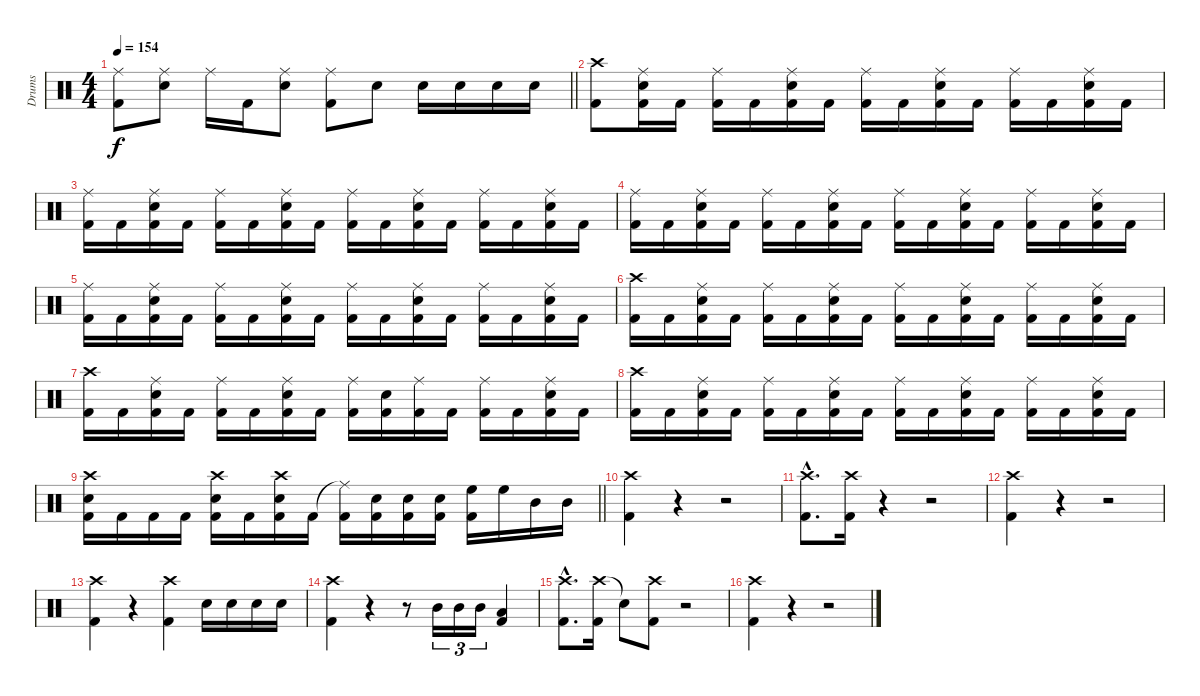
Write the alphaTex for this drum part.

\track ("Drums" "Drums") {instrument percussion}
\staff {score}
\articulation defaults
\ts (4 4)
\tempo 154
\clef neutral
\barLineRight lightlight
\ks c
("Ride (middle)" "Kick (hit) 2").8{dy f} ("Ride (middle)" "Snare (hit) 2").8 "Ride (middle)".16 "Kick (hit) 2".16 ("Ride (middle)" "Snare (hit) 2").8 ("Ride (middle)" "Kick (hit) 2").8 "Snare (hit) 2".8 "Snare (hit) 2".16 "Snare (hit) 2".16 "Snare (hit) 2".16 "Snare (hit) 2".16 |
("Crash high (hit)" "Kick (hit) 2").8 ("Ride (middle)" "Snare (hit) 2" "Kick (hit) 2").16 "Kick (hit) 2".16 ("Ride (middle)" "Kick (hit) 2").16 "Kick (hit) 2".16 ("Ride (middle)" "Snare (hit) 2" "Kick (hit) 2").16 "Kick (hit) 2".16 ("Ride (middle)" "Kick (hit) 2").16 "Kick (hit) 2".16 ("Ride (middle)" "Snare (hit) 2" "Kick (hit) 2").16 "Kick (hit) 2".16 ("Ride (middle)" "Kick (hit) 2").16 "Kick (hit) 2".16 ("Ride (middle)" "Snare (hit) 2" "Kick (hit) 2").16 "Kick (hit) 2".16 |
("Ride (middle)" "Kick (hit) 2").16 "Kick (hit) 2".16 ("Ride (middle)" "Snare (hit) 2" "Kick (hit) 2").16 "Kick (hit) 2".16 ("Ride (middle)" "Kick (hit) 2").16 "Kick (hit) 2".16 ("Ride (middle)" "Snare (hit) 2" "Kick (hit) 2").16 "Kick (hit) 2".16 ("Ride (middle)" "Kick (hit) 2").16 "Kick (hit) 2".16 ("Ride (middle)" "Snare (hit) 2" "Kick (hit) 2").16 "Kick (hit) 2".16 ("Ride (middle)" "Kick (hit) 2").16 "Kick (hit) 2".16 ("Ride (middle)" "Snare (hit) 2" "Kick (hit) 2").16 "Kick (hit) 2".16 |
("Ride (middle)" "Kick (hit) 2").16 "Kick (hit) 2".16 ("Ride (middle)" "Snare (hit) 2" "Kick (hit) 2").16 "Kick (hit) 2".16 ("Ride (middle)" "Kick (hit) 2").16 "Kick (hit) 2".16 ("Ride (middle)" "Snare (hit) 2" "Kick (hit) 2").16 "Kick (hit) 2".16 ("Ride (middle)" "Kick (hit) 2").16 "Kick (hit) 2".16 ("Ride (middle)" "Snare (hit) 2" "Kick (hit) 2").16 "Kick (hit) 2".16 ("Ride (middle)" "Kick (hit) 2").16 "Kick (hit) 2".16 ("Ride (middle)" "Snare (hit) 2" "Kick (hit) 2").16 "Kick (hit) 2".16 |
("Ride (middle)" "Kick (hit) 2").16 "Kick (hit) 2".16 ("Ride (middle)" "Snare (hit) 2" "Kick (hit) 2").16 "Kick (hit) 2".16 ("Ride (middle)" "Kick (hit) 2").16 "Kick (hit) 2".16 ("Ride (middle)" "Snare (hit) 2" "Kick (hit) 2").16 "Kick (hit) 2".16 ("Ride (middle)" "Kick (hit) 2").16 "Kick (hit) 2".16 ("Ride (middle)" "Snare (hit) 2" "Kick (hit) 2").16 "Kick (hit) 2".16 ("Ride (middle)" "Kick (hit) 2").16 "Kick (hit) 2".16 ("Ride (middle)" "Snare (hit) 2" "Kick (hit) 2").16 "Kick (hit) 2".16 |
("Crash high (hit)" "Kick (hit) 2").16 "Kick (hit) 2".16 ("Ride (middle)" "Snare (hit) 2" "Kick (hit) 2").16 "Kick (hit) 2".16 ("Ride (middle)" "Kick (hit) 2").16 "Kick (hit) 2".16 ("Ride (middle)" "Snare (hit) 2" "Kick (hit) 2").16 "Kick (hit) 2".16 ("Ride (middle)" "Kick (hit) 2").16 "Kick (hit) 2".16 ("Ride (middle)" "Snare (hit) 2" "Kick (hit) 2").16 "Kick (hit) 2".16 ("Ride (middle)" "Kick (hit) 2").16 "Kick (hit) 2".16 ("Ride (middle)" "Snare (hit) 2" "Kick (hit) 2").16 "Kick (hit) 2".16 |
("Crash high (hit)" "Kick (hit) 2").16 "Kick (hit) 2".16 ("Ride (middle)" "Snare (hit) 2" "Kick (hit) 2").16 "Kick (hit) 2".16 ("Ride (middle)" "Kick (hit) 2").16 "Kick (hit) 2".16 ("Ride (middle)" "Snare (hit) 2" "Kick (hit) 2").16 "Kick (hit) 2".16 ("Ride (middle)" "Kick (hit) 2").16 ("Snare (hit) 2" "Kick (hit) 2").16 ("Ride (middle)" "Kick (hit) 2").16 "Kick (hit) 2".16 ("Ride (middle)" "Kick (hit) 2").16 "Kick (hit) 2".16 ("Ride (middle)" "Snare (hit) 2" "Kick (hit) 2").16 "Kick (hit) 2".16 |
("Crash high (hit)" "Kick (hit) 2").16 "Kick (hit) 2".16 ("Ride (middle)" "Snare (hit) 2" "Kick (hit) 2").16 "Kick (hit) 2".16 ("Ride (middle)" "Kick (hit) 2").16 "Kick (hit) 2".16 ("Ride (middle)" "Snare (hit) 2" "Kick (hit) 2").16 "Kick (hit) 2".16 ("Ride (middle)" "Kick (hit) 2").16 "Kick (hit) 2".16 ("Ride (middle)" "Snare (hit) 2" "Kick (hit) 2").16 "Kick (hit) 2".16 ("Ride (middle)" "Kick (hit) 2").16 "Kick (hit) 2".16 ("Ride (middle)" "Snare (hit) 2" "Kick (hit) 2").16 "Kick (hit) 2".16 |
\barLineRight lightlight
("Crash high (hit)" "Snare (hit) 2" "Kick (hit) 2").16 "Kick (hit) 2".16 "Kick (hit) 2".16 "Kick (hit) 2".16 ("Crash high (hit)" "Snare (hit) 2" "Kick (hit) 2").16 "Kick (hit) 2".16 ("Crash high (hit)" "Snare (hit) 2" "Kick (hit) 2").16 "Kick (hit) 2".16 ("Ride (middle)"{t} "Kick (hit) 2").16 ("Snare (hit) 2" "Kick (hit) 2").16 ("Snare (hit) 2" "Kick (hit) 2").16 ("Snare (hit) 2" "Kick (hit) 2").16 ("High Floor Tom (hit)" "Kick (hit) 2").16 "High Floor Tom (hit)".16 "Mid Tom (hit)".16 "Mid Tom (hit)".16 |
("Crash high (hit)" "Kick (hit) 2").4 r.4 r.2 |
("Crash high (hit)"{hac} "Kick (hit) 2"{hac}).8{d} ("Crash high (hit)" "Kick (hit) 2").16 r.4 r.2 |
("Crash high (hit)" "Kick (hit) 2").4 r.4 r.2 |
("Crash high (hit)" "Kick (hit) 2").4 r.4 ("Crash high (hit)" "Kick (hit) 2").4 "Snare (hit) 2".16 "Snare (hit) 2".16 "Snare (hit) 2".16 "Snare (hit) 2".16 |
("Crash high (hit)" "Kick (hit) 2").4 r.4 r.8 "Mid Tom (hit)".16{tu (3 2)} "Mid Tom (hit)".16{tu (3 2)} "Mid Tom (hit)".16{tu (3 2)} ("Low Floor Tom (hit)" "Kick (hit) 2").4 |
("Crash high (hit)"{hac} "Kick (hit) 2"{hac}).8{d} ("Crash high (hit)" "Kick (hit) 2").16 "Snare (hit)"{t}.8 ("Crash high (hit)" "Kick (hit) 2").8 r.2 |
("Crash high (hit)" "Kick (hit) 2").4 r.4 r.2
